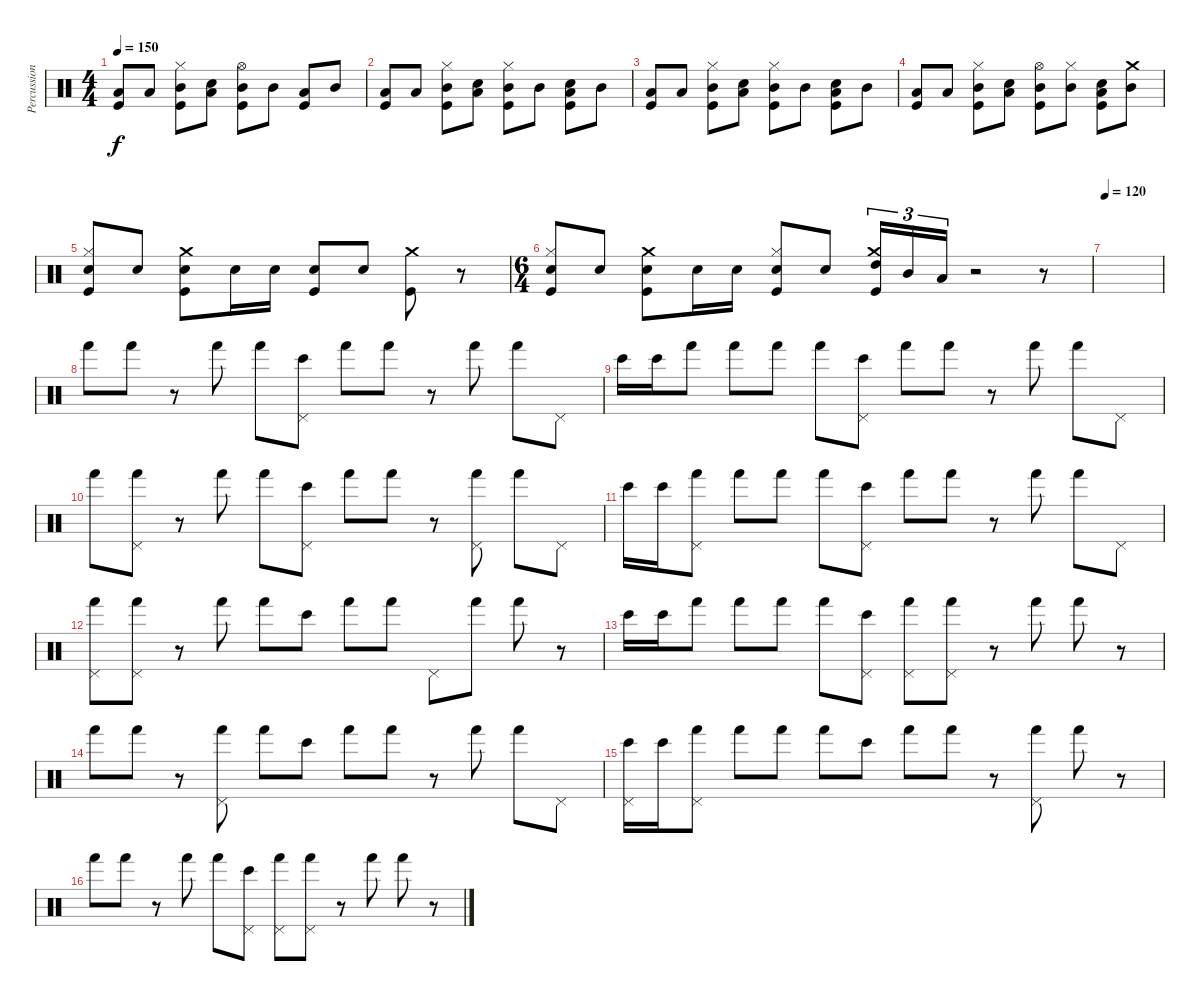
\track ("Percussions" "Percussion") {instrument percussion}
\staff {score}
\articulation defaults
\ts (4 4)
\tempo 150
\clef neutral
\ks c
("Low Tom (hit)" "Kick (hit)").8{dy f} "Low Tom (hit)".8 ("Mid Tom (hit)" "Hi-Hat (closed)" "Kick (hit)").8 ("Low Tom (hit)" "Electric Snare (hit)").8 ("Mid Tom (hit)" "Hi-Hat (open)" "Kick (hit)").8 "Mid Tom (hit)".8 ("Low Tom (hit)" "Kick (hit)").8 "Mid Tom (hit)".8 |
("Low Tom (hit)" "Kick (hit)").8 "Low Tom (hit)".8 ("Mid Tom (hit)" "Hi-Hat (closed)" "Kick (hit)").8 ("Low Tom (hit)" "Electric Snare (hit)").8 ("Mid Tom (hit)" "Hi-Hat (closed)" "Kick (hit)").8 "Mid Tom (hit)".8 ("Low Tom (hit)" "Electric Snare (hit)" "Kick (hit)").8 "Mid Tom (hit)".8 |
("Low Tom (hit)" "Kick (hit)").8 "Low Tom (hit)".8 ("Mid Tom (hit)" "Hi-Hat (closed)" "Kick (hit)").8 ("Low Tom (hit)" "Electric Snare (hit)").8 ("Mid Tom (hit)" "Hi-Hat (closed)" "Kick (hit)").8 "Mid Tom (hit)".8 ("Low Tom (hit)" "Electric Snare (hit)" "Kick (hit)").8 "Mid Tom (hit)".8 |
("Low Tom (hit)" "Kick (hit)").8 "Low Tom (hit)".8 ("Mid Tom (hit)" "Hi-Hat (closed)" "Kick (hit)").8 ("Low Tom (hit)" "Electric Snare (hit)").8 ("Mid Tom (hit)" "Hi-Hat (open)" "Kick (hit)").8 ("Mid Tom (hit)" "Hi-Hat (closed)").8 ("Low Tom (hit)" "Electric Snare (hit)" "Kick (hit)").8 ("Mid Tom (hit)" "Crash medium (hit)").8 |
("Electric Snare (hit)" "Hi-Hat (closed)" "Kick (hit)").8 "Electric Snare (hit)".8 ("Electric Snare (hit)" "Crash medium (hit)" "Kick (hit)").8 "Electric Snare (hit)".16 "Electric Snare (hit)".16 ("Electric Snare (hit)" "Kick (hit)").8 "Electric Snare (hit)".8 ("Crash medium (hit)" "Kick (hit)").8 r.8 |
\ts (6 4)
("Electric Snare (hit)" "Hi-Hat (closed)" "Kick (hit)").8 "Electric Snare (hit)".8 ("Electric Snare (hit)" "Crash medium (hit)" "Kick (hit)").8 "Electric Snare (hit)".16 "Electric Snare (hit)".16 ("Electric Snare (hit)" "Hi-Hat (closed)" "Kick (hit)").8 "Electric Snare (hit)".8 ("High Tom (hit)" "Crash medium (hit)" "Kick (hit)").16{tu (3 2)} "Mid Tom (hit)".16{tu (3 2)} "Low Tom (hit)".16{tu (3 2)} r.2 r.8 |
\tempo 120
|
"Hand (hit)".8{volume 8} "Hand (hit)".8 r.8 "Hand (hit)".8 "Hand (hit)".8 ("Bongo High (hit)" "Pedal Hi-Hat (hit)").8 "Hand (hit)".8 "Hand (hit)".8 r.8 "Hand (hit)".8 "Hand (hit)".8 "Pedal Hi-Hat (hit)".8 |
"Bongo High (hit)".16 "Bongo High (hit)".16 "Hand (hit)".8 "Hand (hit)".8 "Hand (hit)".8 "Hand (hit)".8 ("Bongo High (hit)" "Pedal Hi-Hat (hit)").8 "Hand (hit)".8 "Hand (hit)".8 r.8 "Hand (hit)".8 "Hand (hit)".8 "Pedal Hi-Hat (hit)".8 |
"Hand (hit)".8 ("Hand (hit)" "Pedal Hi-Hat (hit)").8 r.8 "Hand (hit)".8 "Hand (hit)".8 ("Bongo High (hit)" "Pedal Hi-Hat (hit)").8 "Hand (hit)".8 "Hand (hit)".8 r.8 ("Hand (hit)" "Pedal Hi-Hat (hit)").8 "Hand (hit)".8 "Pedal Hi-Hat (hit)".8 |
"Bongo High (hit)".16 "Bongo High (hit)".16 ("Hand (hit)" "Pedal Hi-Hat (hit)").8 "Hand (hit)".8 "Hand (hit)".8 "Hand (hit)".8 ("Bongo High (hit)" "Pedal Hi-Hat (hit)").8 "Hand (hit)".8 "Hand (hit)".8 r.8 "Hand (hit)".8 "Hand (hit)".8 "Pedal Hi-Hat (hit)".8 |
("Hand (hit)" "Pedal Hi-Hat (hit)").8 ("Hand (hit)" "Pedal Hi-Hat (hit)").8 r.8 "Hand (hit)".8 "Hand (hit)".8 "Bongo High (hit)".8 "Hand (hit)".8 "Hand (hit)".8 "Pedal Hi-Hat (hit)".8 "Hand (hit)".8 "Hand (hit)".8 r.8 |
"Bongo High (hit)".16 "Bongo High (hit)".16 "Hand (hit)".8 "Hand (hit)".8 "Hand (hit)".8 "Hand (hit)".8 ("Bongo High (hit)" "Pedal Hi-Hat (hit)").8 ("Hand (hit)" "Pedal Hi-Hat (hit)").8 ("Hand (hit)" "Pedal Hi-Hat (hit)").8 r.8 "Hand (hit)".8 "Hand (hit)".8 r.8 |
"Hand (hit)".8 "Hand (hit)".8 r.8 ("Hand (hit)" "Pedal Hi-Hat (hit)").8 "Hand (hit)".8 "Bongo High (hit)".8 "Hand (hit)".8 "Hand (hit)".8 r.8 "Hand (hit)".8 "Hand (hit)".8 "Pedal Hi-Hat (hit)".8 |
("Bongo High (hit)" "Pedal Hi-Hat (hit)").16 "Bongo High (hit)".16 ("Hand (hit)" "Pedal Hi-Hat (hit)").8 "Hand (hit)".8 "Hand (hit)".8 "Hand (hit)".8 "Bongo High (hit)".8 "Hand (hit)".8 "Hand (hit)".8 r.8 ("Hand (hit)" "Pedal Hi-Hat (hit)").8 "Hand (hit)".8 r.8 |
"Hand (hit)".8 "Hand (hit)".8 r.8 "Hand (hit)".8 "Hand (hit)".8 ("Bongo High (hit)" "Pedal Hi-Hat (hit)").8 ("Hand (hit)" "Pedal Hi-Hat (hit)").8 ("Hand (hit)" "Pedal Hi-Hat (hit)").8 r.8 "Hand (hit)".8 "Hand (hit)".8 r.8
